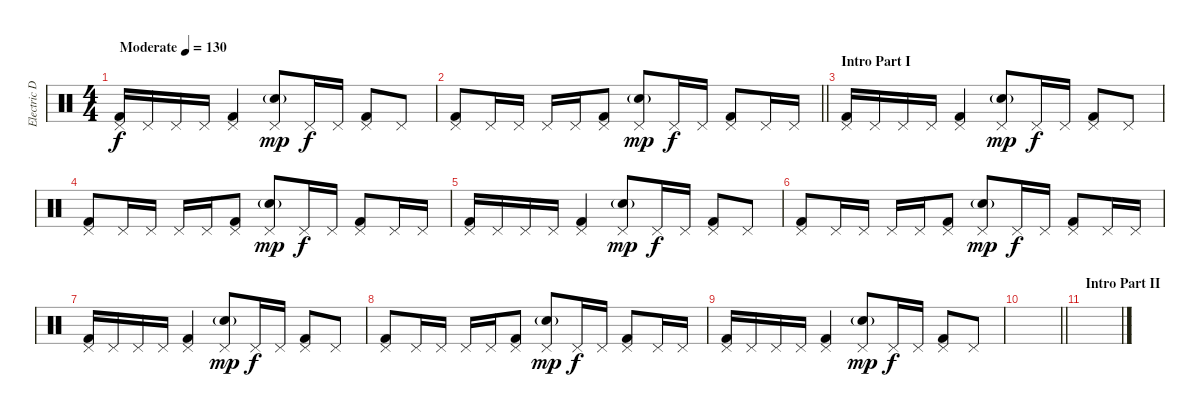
\track ("Electric Drums" "Electric D") {instrument percussion}
\staff {score}
\articulation defaults
\ts (4 4)
\tempo (130 "Moderate")
\clef neutral
\ks c
("Pedal Hi-Hat (hit)" "Kick (hit) 2").16{dy f} "Pedal Hi-Hat (hit)".16 "Pedal Hi-Hat (hit)".16 "Pedal Hi-Hat (hit)".16 ("Pedal Hi-Hat (hit)" "Kick (hit) 2").4 ("Pedal Hi-Hat (hit)" "Snare (hit) 2"{g}).8{dy mp} "Pedal Hi-Hat (hit)".16{dy f} "Pedal Hi-Hat (hit)".16 ("Pedal Hi-Hat (hit)" "Kick (hit) 2").8 "Pedal Hi-Hat (hit)".8 |
\barLineRight lightlight
("Pedal Hi-Hat (hit)" "Kick (hit) 2").8 "Pedal Hi-Hat (hit)".16 "Pedal Hi-Hat (hit)".16 "Pedal Hi-Hat (hit)".16 "Pedal Hi-Hat (hit)".16 ("Pedal Hi-Hat (hit)" "Kick (hit) 2").8 ("Pedal Hi-Hat (hit)" "Snare (hit) 2"{g}).8{dy mp} "Pedal Hi-Hat (hit)".16{dy f} "Pedal Hi-Hat (hit)".16 ("Pedal Hi-Hat (hit)" "Kick (hit) 2").8 "Pedal Hi-Hat (hit)".16 "Pedal Hi-Hat (hit)".16 |
\section ("" "Intro Part I")
("Pedal Hi-Hat (hit)" "Kick (hit) 2").16 "Pedal Hi-Hat (hit)".16 "Pedal Hi-Hat (hit)".16 "Pedal Hi-Hat (hit)".16 ("Pedal Hi-Hat (hit)" "Kick (hit) 2").4 ("Pedal Hi-Hat (hit)" "Snare (hit) 2"{g}).8{dy mp} "Pedal Hi-Hat (hit)".16{dy f} "Pedal Hi-Hat (hit)".16 ("Pedal Hi-Hat (hit)" "Kick (hit) 2").8 "Pedal Hi-Hat (hit)".8 |
("Pedal Hi-Hat (hit)" "Kick (hit) 2").8 "Pedal Hi-Hat (hit)".16 "Pedal Hi-Hat (hit)".16 "Pedal Hi-Hat (hit)".16 "Pedal Hi-Hat (hit)".16 ("Pedal Hi-Hat (hit)" "Kick (hit) 2").8 ("Pedal Hi-Hat (hit)" "Snare (hit) 2"{g}).8{dy mp} "Pedal Hi-Hat (hit)".16{dy f} "Pedal Hi-Hat (hit)".16 ("Pedal Hi-Hat (hit)" "Kick (hit) 2").8 "Pedal Hi-Hat (hit)".16 "Pedal Hi-Hat (hit)".16 |
("Pedal Hi-Hat (hit)" "Kick (hit) 2").16 "Pedal Hi-Hat (hit)".16 "Pedal Hi-Hat (hit)".16 "Pedal Hi-Hat (hit)".16 ("Pedal Hi-Hat (hit)" "Kick (hit) 2").4 ("Pedal Hi-Hat (hit)" "Snare (hit) 2"{g}).8{dy mp} "Pedal Hi-Hat (hit)".16{dy f} "Pedal Hi-Hat (hit)".16 ("Pedal Hi-Hat (hit)" "Kick (hit) 2").8 "Pedal Hi-Hat (hit)".8 |
("Pedal Hi-Hat (hit)" "Kick (hit) 2").8 "Pedal Hi-Hat (hit)".16 "Pedal Hi-Hat (hit)".16 "Pedal Hi-Hat (hit)".16 "Pedal Hi-Hat (hit)".16 ("Pedal Hi-Hat (hit)" "Kick (hit) 2").8 ("Pedal Hi-Hat (hit)" "Snare (hit) 2"{g}).8{dy mp} "Pedal Hi-Hat (hit)".16{dy f} "Pedal Hi-Hat (hit)".16 ("Pedal Hi-Hat (hit)" "Kick (hit) 2").8 "Pedal Hi-Hat (hit)".16 "Pedal Hi-Hat (hit)".16 |
("Pedal Hi-Hat (hit)" "Kick (hit) 2").16 "Pedal Hi-Hat (hit)".16 "Pedal Hi-Hat (hit)".16 "Pedal Hi-Hat (hit)".16 ("Pedal Hi-Hat (hit)" "Kick (hit) 2").4 ("Pedal Hi-Hat (hit)" "Snare (hit) 2"{g}).8{dy mp} "Pedal Hi-Hat (hit)".16{dy f} "Pedal Hi-Hat (hit)".16 ("Pedal Hi-Hat (hit)" "Kick (hit) 2").8 "Pedal Hi-Hat (hit)".8 |
("Pedal Hi-Hat (hit)" "Kick (hit) 2").8 "Pedal Hi-Hat (hit)".16 "Pedal Hi-Hat (hit)".16 "Pedal Hi-Hat (hit)".16 "Pedal Hi-Hat (hit)".16 ("Pedal Hi-Hat (hit)" "Kick (hit) 2").8 ("Pedal Hi-Hat (hit)" "Snare (hit) 2"{g}).8{dy mp} "Pedal Hi-Hat (hit)".16{dy f} "Pedal Hi-Hat (hit)".16 ("Pedal Hi-Hat (hit)" "Kick (hit) 2").8 "Pedal Hi-Hat (hit)".16 "Pedal Hi-Hat (hit)".16 |
("Pedal Hi-Hat (hit)" "Kick (hit) 2").16 "Pedal Hi-Hat (hit)".16 "Pedal Hi-Hat (hit)".16 "Pedal Hi-Hat (hit)".16 ("Pedal Hi-Hat (hit)" "Kick (hit) 2").4 ("Pedal Hi-Hat (hit)" "Snare (hit) 2"{g}).8{dy mp} "Pedal Hi-Hat (hit)".16{dy f} "Pedal Hi-Hat (hit)".16 ("Pedal Hi-Hat (hit)" "Kick (hit) 2").8 "Pedal Hi-Hat (hit)".8 |
\barLineRight lightlight
|
\section ("" "Intro Part II")
